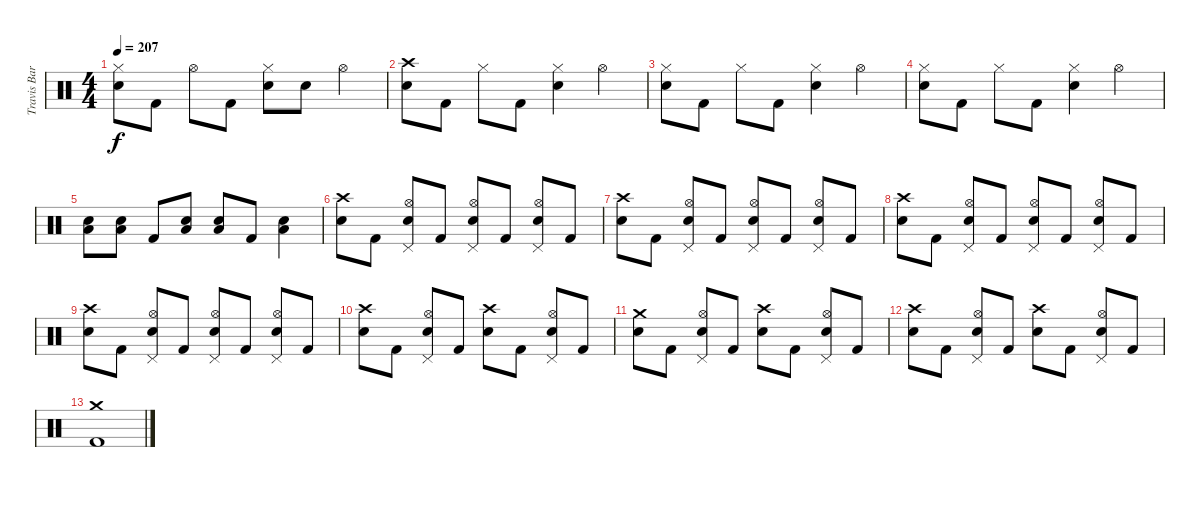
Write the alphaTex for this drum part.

\track ("Travis Barker" "Travis Bar") {instrument percussion}
\staff {score}
\articulation defaults
\ts (4 4)
\tempo 207
\clef neutral
\ks c
("Hi-Hat (closed)" "Electric Snare (hit)").8{dy f} "Kick (hit) 2".8 "Hi-Hat (open)".8 "Kick (hit) 2".8 ("Hi-Hat (closed)" "Electric Snare (hit)").8 "Electric Snare (hit)".8 "Hi-Hat (open)".4 |
("Crash high (hit)" "Electric Snare (hit)").8 "Kick (hit) 2".8 "Hi-Hat (closed)".8 "Kick (hit) 2".8 ("Hi-Hat (closed)" "Electric Snare (hit)").4 "Hi-Hat (open)".4 |
("Hi-Hat (closed)" "Electric Snare (hit)").8 "Kick (hit) 2".8 "Hi-Hat (closed)".8 "Kick (hit) 2".8 ("Hi-Hat (closed)" "Electric Snare (hit)").4 "Hi-Hat (open)".4 |
("Hi-Hat (closed)" "Electric Snare (hit)").8 "Kick (hit) 2".8 "Hi-Hat (closed)".8 "Kick (hit) 2".8 ("Hi-Hat (closed)" "Electric Snare (hit)").4 "Hi-Hat (open)".4 |
("Low Tom (hit)" "Electric Snare (hit)").8 ("Low Tom (hit)" "Electric Snare (hit)").8 "Kick (hit) 2".8 ("Low Tom (hit)" "Electric Snare (hit)").8 ("Low Tom (hit)" "Electric Snare (hit)").8 "Kick (hit) 2".8 ("Low Tom (hit)" "Electric Snare (hit)").4 |
("Crash high (hit)" "Electric Snare (hit)").8 "Kick (hit) 2".8 ("Hi-Hat (open)" "Pedal Hi-Hat (hit)" "Electric Snare (hit)").8 "Kick (hit) 2".8 ("Hi-Hat (open)" "Pedal Hi-Hat (hit)" "Electric Snare (hit)").8 "Kick (hit) 2".8 ("Hi-Hat (open)" "Pedal Hi-Hat (hit)" "Electric Snare (hit)").8 "Kick (hit) 2".8 |
("Crash high (hit)" "Electric Snare (hit)").8 "Kick (hit) 2".8 ("Hi-Hat (open)" "Pedal Hi-Hat (hit)" "Electric Snare (hit)").8 "Kick (hit) 2".8 ("Hi-Hat (open)" "Pedal Hi-Hat (hit)" "Electric Snare (hit)").8 "Kick (hit) 2".8 ("Hi-Hat (open)" "Pedal Hi-Hat (hit)" "Electric Snare (hit)").8 "Kick (hit) 2".8 |
("Crash high (hit)" "Electric Snare (hit)").8 "Kick (hit) 2".8 ("Hi-Hat (open)" "Pedal Hi-Hat (hit)" "Electric Snare (hit)").8 "Kick (hit) 2".8 ("Hi-Hat (open)" "Pedal Hi-Hat (hit)" "Electric Snare (hit)").8 "Kick (hit) 2".8 ("Hi-Hat (open)" "Pedal Hi-Hat (hit)" "Electric Snare (hit)").8 "Kick (hit) 2".8 |
("Crash high (hit)" "Electric Snare (hit)").8 "Kick (hit) 2".8 ("Hi-Hat (open)" "Pedal Hi-Hat (hit)" "Electric Snare (hit)").8 "Kick (hit) 2".8 ("Hi-Hat (open)" "Pedal Hi-Hat (hit)" "Electric Snare (hit)").8 "Kick (hit) 2".8 ("Hi-Hat (open)" "Pedal Hi-Hat (hit)" "Electric Snare (hit)").8 "Kick (hit) 2".8 |
("Crash high (hit)" "Electric Snare (hit)").8 "Kick (hit) 2".8 ("Hi-Hat (open)" "Pedal Hi-Hat (hit)" "Electric Snare (hit)").8 "Kick (hit) 2".8 ("Crash high (hit)" "Electric Snare (hit)").8 "Kick (hit) 2".8 ("Hi-Hat (open)" "Pedal Hi-Hat (hit)" "Electric Snare (hit)").8 "Kick (hit) 2".8 |
("Crash medium (hit)" "Electric Snare (hit)").8 "Kick (hit) 2".8 ("Hi-Hat (open)" "Pedal Hi-Hat (hit)" "Electric Snare (hit)").8 "Kick (hit) 2".8 ("Crash high (hit)" "Electric Snare (hit)").8 "Kick (hit) 2".8 ("Hi-Hat (open)" "Pedal Hi-Hat (hit)" "Electric Snare (hit)").8 "Kick (hit) 2".8 |
("Crash high (hit)" "Electric Snare (hit)").8 "Kick (hit) 2".8 ("Hi-Hat (open)" "Pedal Hi-Hat (hit)" "Electric Snare (hit)").8 "Kick (hit) 2".8 ("Crash high (hit)" "Electric Snare (hit)").8 "Kick (hit) 2".8 ("Hi-Hat (open)" "Pedal Hi-Hat (hit)" "Electric Snare (hit)").8 "Kick (hit) 2".8 |
("Crash medium (hit)" "Kick (hit) 2").1
